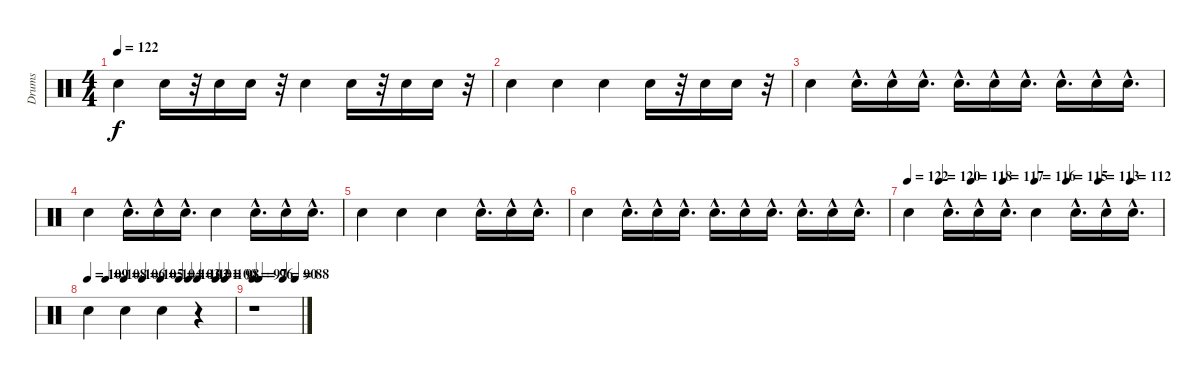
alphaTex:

\track ("Drums" "Drums") {instrument percussion}
\staff {score}
\articulation defaults
\ts (4 4)
\tempo 122
\clef neutral
\ks c "Snare (hit) 2".4{dy f} "Snare (hit) 2".16
r.32 "Snare (hit) 2".16 "Snare (hit) 2".16 r.32 "Snare (hit) 2".4 "Snare (hit) 2".16 r.32 "Snare (hit) 2".16 "Snare (hit) 2".16 r.32 |
"Snare (hit) 2".4 "Snare (hit) 2".4 "Snare (hit) 2".4 "Snare (hit) 2".16 r.32 "Snare (hit) 2".16 "Snare (hit) 2".16 r.32 |
"Snare (hit) 2".4 "Snare (hit) 2"{hac}.16{d} "Snare (hit) 2"{hac}.16 "Snare (hit) 2"{hac}.16{d} "Snare (hit) 2"{hac}.16{d} "Snare (hit) 2"{hac}.16 "Snare (hit) 2"{hac}.16{d} "Snare (hit) 2"{hac}.16{d} "Snare (hit) 2"{hac}.16 "Snare (hit) 2"{hac}.16{d} |
"Snare (hit) 2".4 "Snare (hit) 2"{hac}.16{d} "Snare (hit) 2"{hac}.16 "Snare (hit) 2"{hac}.16{d} "Snare (hit) 2".4 "Snare (hit) 2"{hac}.16{d} "Snare (hit) 2"{hac}.16 "Snare (hit) 2"{hac}.16{d} |
"Snare (hit) 2".4 "Snare (hit) 2".4 "Snare (hit) 2".4 "Snare (hit) 2"{hac}.16{d} "Snare (hit) 2"{hac}.16 "Snare (hit) 2"{hac}.16{d} |
"Snare (hit) 2".4 "Snare (hit) 2"{hac}.16{d} "Snare (hit) 2"{hac}.16 "Snare (hit) 2"{hac}.16{d} "Snare (hit) 2"{hac}.16{d} "Snare (hit) 2"{hac}.16 "Snare (hit) 2"{hac}.16{d} "Snare (hit) 2"{hac}.16{d} "Snare (hit) 2"{hac}.16 "Snare (hit) 2"{hac}.16{d} |
\tempo 122
\tempo (120 0.125)
\tempo (118 0.25)
\tempo (117 0.375)
\tempo (116 0.5)
\tempo (115 0.625)
\tempo (113 0.75)
\tempo (112 0.875)
"Snare (hit) 2".4 "Snare (hit) 2"{hac}.16{d} "Snare (hit) 2"{hac}.16 "Snare (hit) 2"{hac}.16{d} "Snare (hit) 2".4 "Snare (hit) 2"{hac}.16{d} "Snare (hit) 2"{hac}.16 "Snare (hit) 2"{hac}.16{d} |
\tempo 109
\tempo (108 0.125)
\tempo (106 0.25)
\tempo (105 0.375)
\tempo (104 0.5)
\tempo (103 0.625)
\tempo (102 0.6875)
\tempo (101 0.75)
\tempo (100 0.875)
\tempo (98 0.9375)
"Snare (hit) 2".4 "Snare (hit) 2".4 "Snare (hit) 2".4 r.4 |
\tempo 97
\tempo (96 0.125)
\tempo (90 0.625)
\tempo (88 0.875)
r.1
